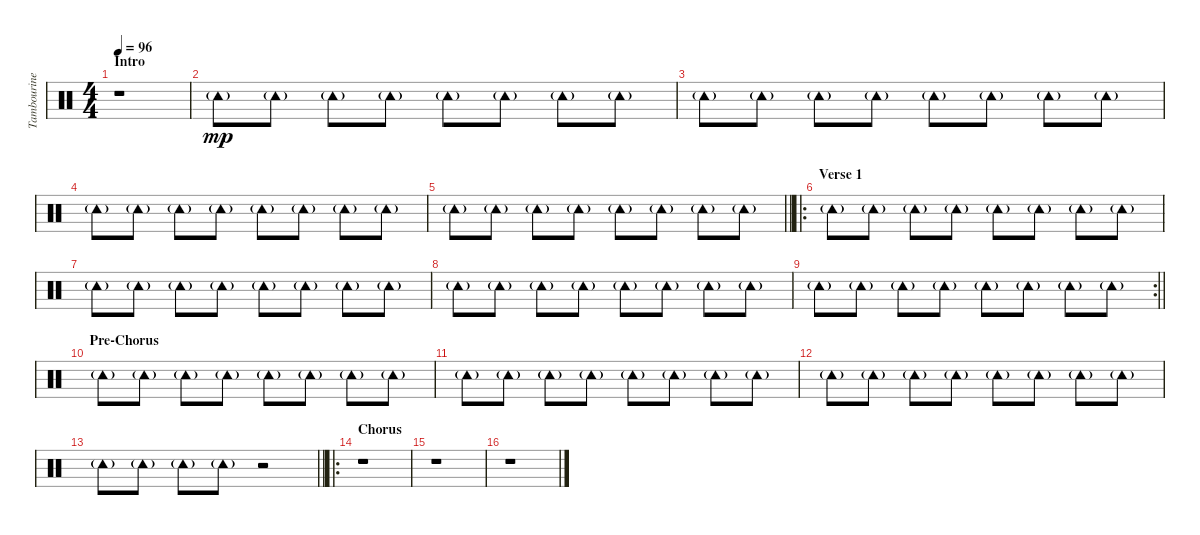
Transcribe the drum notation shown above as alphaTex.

\track ("Tambourine" "Tambourine") {instrument percussion}
\staff {score}
\articulation defaults
\ts (4 4)
\section ("" "Intro")
\tempo 96
\clef neutral
\ks c
r.1{dy mp} |
"Tambourine (hit)"{g}.8 "Tambourine (hit)"{g}.8 "Tambourine (hit)"{g}.8 "Tambourine (hit)"{g}.8 "Tambourine (hit)"{g}.8 "Tambourine (hit)"{g}.8 "Tambourine (hit)"{g}.8 "Tambourine (hit)"{g}.8 |
"Tambourine (hit)"{g}.8 "Tambourine (hit)"{g}.8 "Tambourine (hit)"{g}.8 "Tambourine (hit)"{g}.8 "Tambourine (hit)"{g}.8 "Tambourine (hit)"{g}.8 "Tambourine (hit)"{g}.8 "Tambourine (hit)"{g}.8 |
"Tambourine (hit)"{g}.8 "Tambourine (hit)"{g}.8 "Tambourine (hit)"{g}.8 "Tambourine (hit)"{g}.8 "Tambourine (hit)"{g}.8 "Tambourine (hit)"{g}.8 "Tambourine (hit)"{g}.8 "Tambourine (hit)"{g}.8 |
\barLineRight lightlight "Tambourine (hit)"{g}.8 "Tambourine (hit)"{g}.8 "Tambourine (hit)"{g}.8 "Tambourine (hit)"{g}.8 "Tambourine (hit)"{g}.8 "Tambourine (hit)"{g}.8 "Tambourine (hit)"{g}.8 "Tambourine (hit)"{g}.8
|
\ro
\section ("" "Verse 1")
"Tambourine (hit)"{g}.8 "Tambourine (hit)"{g}.8 "Tambourine (hit)"{g}.8 "Tambourine (hit)"{g}.8 "Tambourine (hit)"{g}.8 "Tambourine (hit)"{g}.8 "Tambourine (hit)"{g}.8 "Tambourine (hit)"{g}.8 |
"Tambourine (hit)"{g}.8 "Tambourine (hit)"{g}.8 "Tambourine (hit)"{g}.8 "Tambourine (hit)"{g}.8 "Tambourine (hit)"{g}.8 "Tambourine (hit)"{g}.8 "Tambourine (hit)"{g}.8 "Tambourine (hit)"{g}.8 |
"Tambourine (hit)"{g}.8 "Tambourine (hit)"{g}.8 "Tambourine (hit)"{g}.8 "Tambourine (hit)"{g}.8 "Tambourine (hit)"{g}.8 "Tambourine (hit)"{g}.8 "Tambourine (hit)"{g}.8 "Tambourine (hit)"{g}.8 |
\rc 2
\barLineRight lightlight "Tambourine (hit)"{g}.8 "Tambourine (hit)"{g}.8 "Tambourine (hit)"{g}.8 "Tambourine (hit)"{g}.8 "Tambourine (hit)"{g}.8 "Tambourine (hit)"{g}.8 "Tambourine (hit)"{g}.8 "Tambourine (hit)"{g}.8
|
\section ("" "Pre-Chorus")
"Tambourine (hit)"{g}.8 "Tambourine (hit)"{g}.8 "Tambourine (hit)"{g}.8 "Tambourine (hit)"{g}.8 "Tambourine (hit)"{g}.8 "Tambourine (hit)"{g}.8 "Tambourine (hit)"{g}.8 "Tambourine (hit)"{g}.8 |
"Tambourine (hit)"{g}.8 "Tambourine (hit)"{g}.8 "Tambourine (hit)"{g}.8 "Tambourine (hit)"{g}.8 "Tambourine (hit)"{g}.8 "Tambourine (hit)"{g}.8 "Tambourine (hit)"{g}.8 "Tambourine (hit)"{g}.8 |
"Tambourine (hit)"{g}.8 "Tambourine (hit)"{g}.8 "Tambourine (hit)"{g}.8 "Tambourine (hit)"{g}.8 "Tambourine (hit)"{g}.8 "Tambourine (hit)"{g}.8 "Tambourine (hit)"{g}.8 "Tambourine (hit)"{g}.8 |
\barLineRight lightlight "Tambourine (hit)"{g}.8 "Tambourine (hit)"{g}.8 "Tambourine (hit)"{g}.8 "Tambourine (hit)"{g}.8
r.2 |
\ro
\section ("" "Chorus")
r.1 |
r.1 |
r.1
